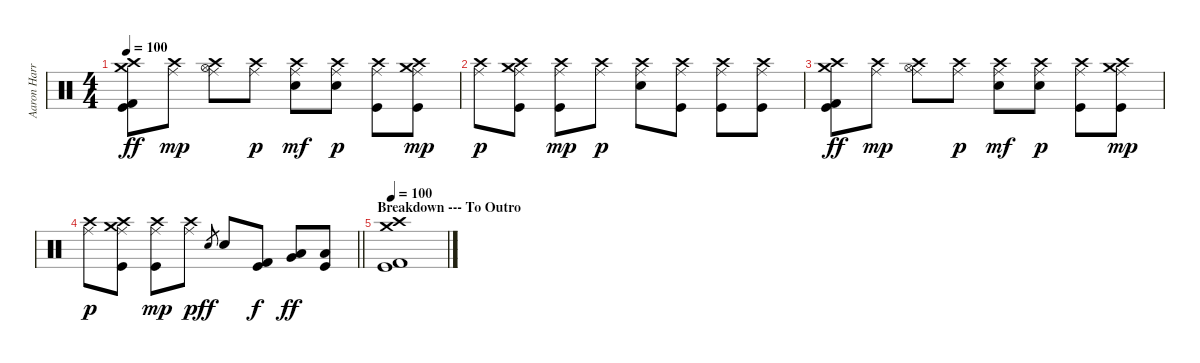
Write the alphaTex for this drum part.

\track ("Aaron Harris" "Aaron Harr") {instrument percussion}
\staff {score}
\articulation defaults
\ts (4 4)
\tempo 100
\clef neutral
\ks c
("Crash medium (hit)" "Crash high (hit)" "Kick (hit) 2" "Kick (hit)").8{dy ff} ("Crash high (hit)" "Ride (middle)").8{dy mp} ("Crash high (hit)" "Hi-Hat (open)" "Ride (middle)").8 ("Crash high (hit)" "Ride (middle)").8{dy p} ("Crash high (hit)" "Ride (middle)" "Electric Snare (hit)").8{dy mf} ("Crash high (hit)" "Ride (middle)" "Electric Snare (hit)").8{dy p} ("Crash high (hit)" "Ride (middle)" "Kick (hit)").8 ("Crash medium (hit)" "Crash high (hit)" "Ride (middle)" "Kick (hit)").8{dy mp} |
("Crash high (hit)" "Ride (middle)").8{dy p} ("Crash medium (hit)" "Crash high (hit)" "Ride (middle)" "Kick (hit)").8 ("Crash high (hit)" "Ride (middle)" "Kick (hit)").8{dy mp} ("Crash high (hit)" "Ride (middle)").8{dy p} ("Crash high (hit)" "Ride (middle)" "Electric Snare (hit)").8 ("Crash high (hit)" "Ride (middle)" "Kick (hit)").8 ("Crash high (hit)" "Ride (middle)" "Kick (hit)").8 ("Crash high (hit)" "Ride (middle)" "Kick (hit)").8 |
("Crash medium (hit)" "Crash high (hit)" "Kick (hit) 2" "Kick (hit)").8{dy ff} ("Crash high (hit)" "Ride (middle)").8{dy mp} ("Crash high (hit)" "Hi-Hat (open)" "Ride (middle)").8 ("Crash high (hit)" "Ride (middle)").8{dy p} ("Crash high (hit)" "Ride (middle)" "Electric Snare (hit)").8{dy mf} ("Crash high (hit)" "Ride (middle)" "Electric Snare (hit)").8{dy p} ("Crash high (hit)" "Ride (middle)" "Kick (hit)").8 ("Crash medium (hit)" "Crash high (hit)" "Ride (middle)" "Kick (hit)").8{dy mp} |
\barLineRight lightlight
("Crash high (hit)" "Ride (middle)").8{dy p} ("Crash medium (hit)" "Crash high (hit)" "Ride (middle)" "Kick (hit)").8 ("Crash high (hit)" "Ride (middle)" "Kick (hit)").8{dy mp} ("Crash high (hit)" "Ride (middle)").8{dy p} "Electric Snare (hit)".8{gr dy ff} "Electric Snare (hit)".8 ("Kick (hit) 2" "Kick (hit)").8{dy f} ("Low Tom (hit)" "Very Low Tom (hit)").8{dy ff} ("Low Floor Tom (hit)" "Kick (hit)").8 |
\section ("" "Breakdown --- To Outro")
\tempo 100
("Crash medium (hit)" "Crash high (hit)" "Kick (hit) 2" "Kick (hit)").1
